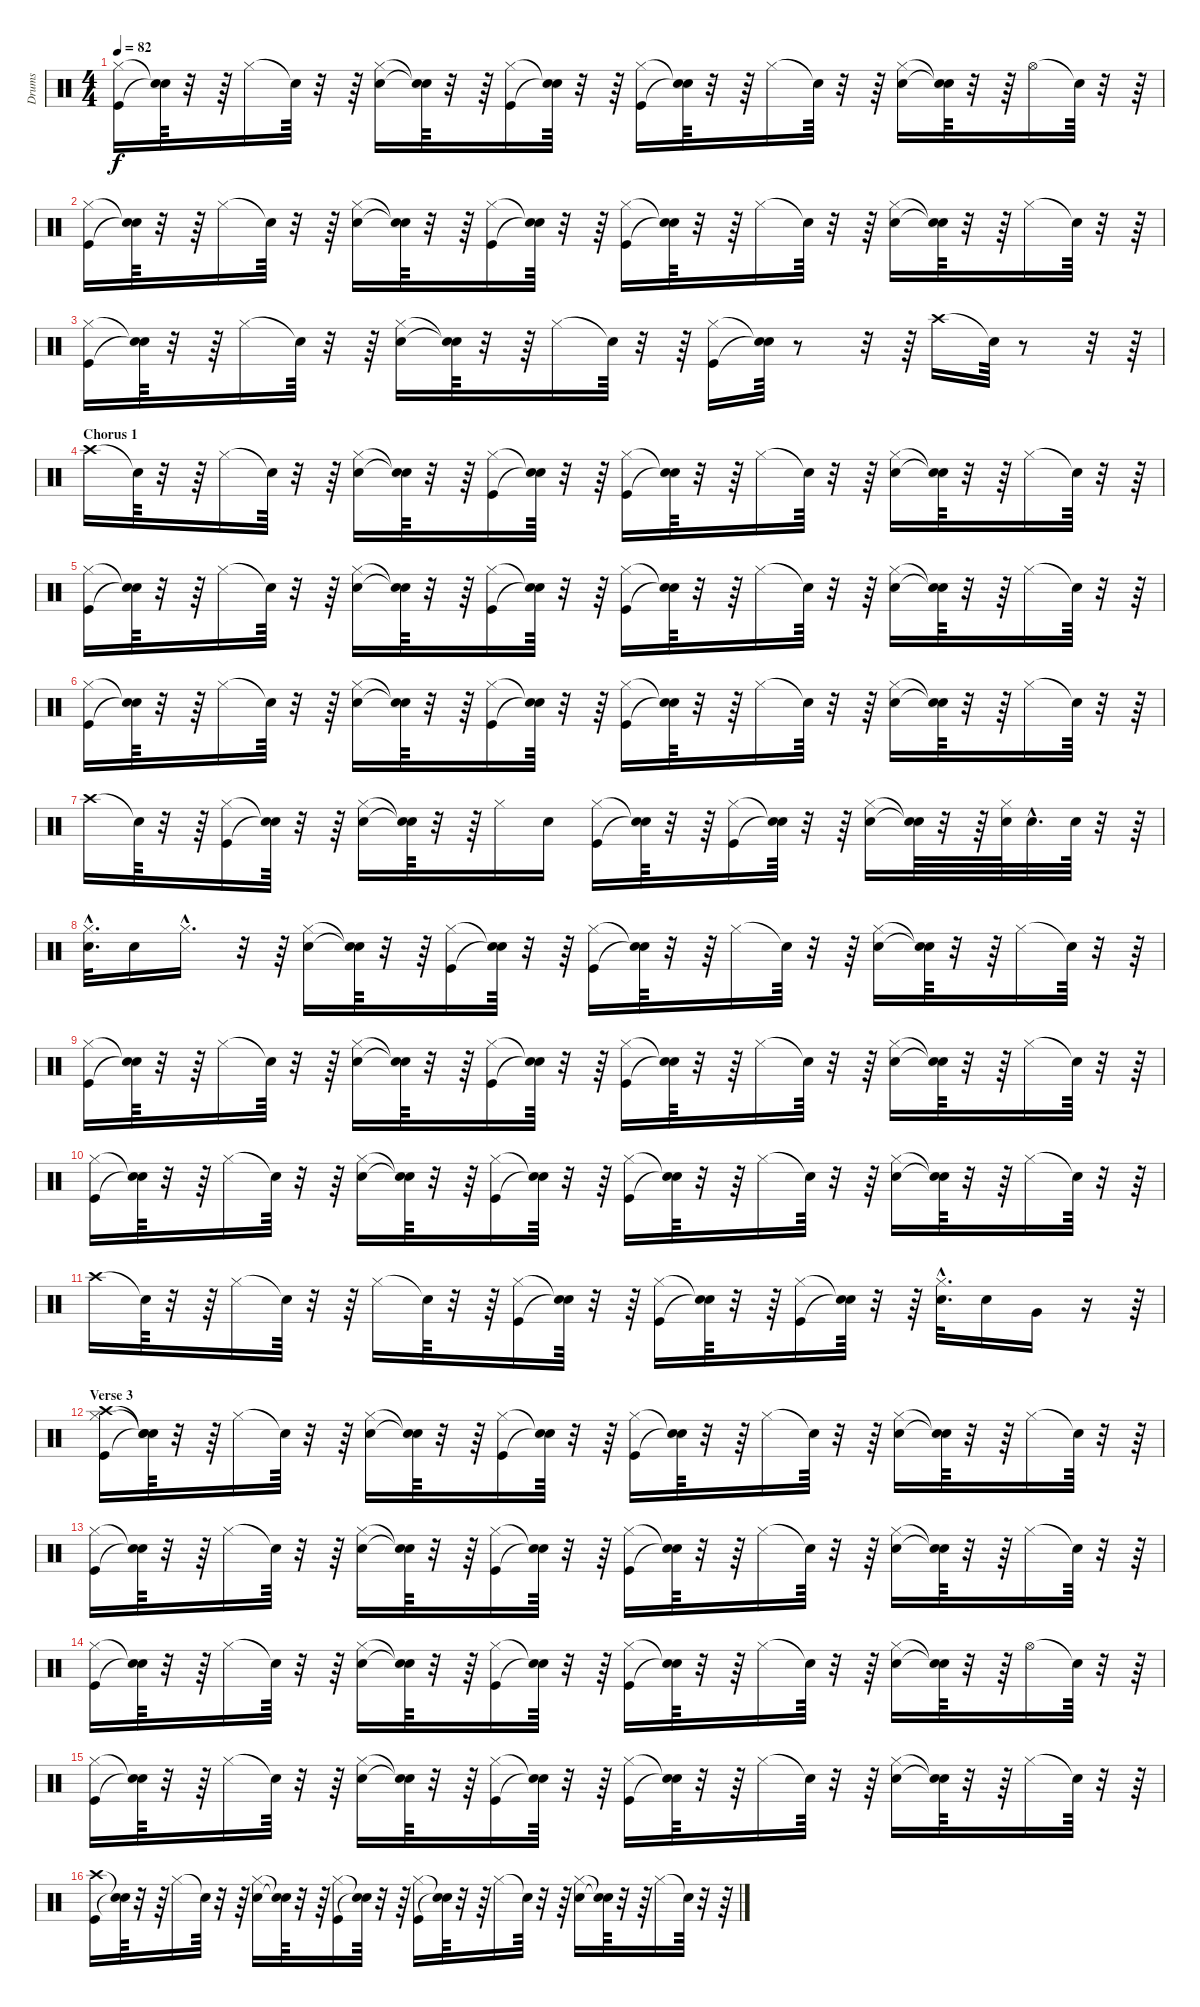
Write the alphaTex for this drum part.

\track ("Drums" "Drums") {instrument percussion}
\staff {score}
\articulation defaults
\ts (4 4)
\tempo 82
\clef neutral
\ks c
("Hi-Hat (closed)" "Kick (hit)").16{dy f} ("Snare (hit)"{t} "Snare (hit)"{t}).64 r.32 r.64 "Hi-Hat (closed)".16 "Snare (hit)"{t}.64 r.32 r.64 ("Hi-Hat (closed)" "Snare (hit) 2").16 ("Snare (hit)"{t} "Snare (hit)"{t}).64 r.32 r.64 ("Hi-Hat (closed)" "Kick (hit)").16 ("Snare (hit)"{t} "Snare (hit)"{t}).64 r.32 r.64 ("Hi-Hat (closed)" "Kick (hit)").16 ("Snare (hit)"{t} "Snare (hit)"{t}).64 r.32 r.64 "Hi-Hat (closed)".16 "Snare (hit)"{t}.64 r.32 r.64 ("Hi-Hat (closed)" "Snare (hit) 2").16 ("Snare (hit)"{t} "Snare (hit)"{t}).64 r.32 r.64 "Hi-Hat (open)".16 "Snare (hit)"{t}.64 r.32 r.64 |
("Kick (hit)" "Hi-Hat (closed)").16 ("Snare (hit)"{t} "Snare (hit)"{t}).64 r.32 r.64 "Hi-Hat (closed)".16 "Snare (hit)"{t}.64 r.32 r.64 ("Snare (hit) 2" "Hi-Hat (closed)").16 ("Snare (hit)"{t} "Snare (hit)"{t}).64 r.32 r.64 ("Kick (hit)" "Hi-Hat (closed)").16 ("Snare (hit)"{t} "Snare (hit)"{t}).64 r.32 r.64 ("Kick (hit)" "Hi-Hat (closed)").16 ("Snare (hit)"{t} "Snare (hit)"{t}).64 r.32 r.64 "Hi-Hat (closed)".16 "Snare (hit)"{t}.64 r.32 r.64 ("Snare (hit) 2" "Hi-Hat (closed)").16 ("Snare (hit)"{t} "Snare (hit)"{t}).64 r.32 r.64 "Hi-Hat (closed)".16 "Snare (hit)"{t}.64 r.32 r.64 |
("Hi-Hat (closed)" "Kick (hit)").16 ("Snare (hit)"{t} "Snare (hit)"{t}).64 r.32 r.64 "Hi-Hat (closed)".16 "Snare (hit)"{t}.64 r.32 r.64 ("Hi-Hat (closed)" "Snare (hit) 2").16 ("Snare (hit)"{t} "Snare (hit)"{t}).64 r.32 r.64 "Hi-Hat (closed)".16 "Snare (hit)"{t}.64 r.32 r.64 ("Hi-Hat (closed)" "Kick (hit)").16 ("Snare (hit)"{t} "Snare (hit)"{t}).64 r.8 r.32 r.64 "Crash high (hit)".16 "Snare (hit)"{t}.64 r.8 r.32 r.64 |
\section ("" "Chorus 1")
"Crash high (hit)".16 "Snare (hit)"{t}.64 r.32 r.64 "Hi-Hat (closed)".16 "Snare (hit)"{t}.64 r.32 r.64 ("Hi-Hat (closed)" "Snare (hit) 2").16 ("Snare (hit)"{t} "Snare (hit)"{t}).64 r.32 r.64 ("Hi-Hat (closed)" "Kick (hit)").16 ("Snare (hit)"{t} "Snare (hit)"{t}).64 r.32 r.64 ("Hi-Hat (closed)" "Kick (hit)").16 ("Snare (hit)"{t} "Snare (hit)"{t}).64 r.32 r.64 "Hi-Hat (closed)".16 "Snare (hit)"{t}.64 r.32 r.64 ("Hi-Hat (closed)" "Snare (hit) 2").16 ("Snare (hit)"{t} "Snare (hit)"{t}).64 r.32 r.64 "Hi-Hat (closed)".16 "Snare (hit)"{t}.64 r.32 r.64 |
("Kick (hit)" "Hi-Hat (closed)").16 ("Snare (hit)"{t} "Snare (hit)"{t}).64 r.32 r.64 "Hi-Hat (closed)".16 "Snare (hit)"{t}.64 r.32 r.64 ("Snare (hit) 2" "Hi-Hat (closed)").16 ("Snare (hit)"{t} "Snare (hit)"{t}).64 r.32 r.64 ("Hi-Hat (closed)" "Kick (hit)").16 ("Snare (hit)"{t} "Snare (hit)"{t}).64 r.32 r.64 ("Kick (hit)" "Hi-Hat (closed)").16 ("Snare (hit)"{t} "Snare (hit)"{t}).64 r.32 r.64 "Hi-Hat (closed)".16 "Snare (hit)"{t}.64 r.32 r.64 ("Hi-Hat (closed)" "Snare (hit) 2").16 ("Snare (hit)"{t} "Snare (hit)"{t}).64 r.32 r.64 "Hi-Hat (closed)".16 "Snare (hit)"{t}.64 r.32 r.64 |
("Kick (hit)" "Hi-Hat (closed)").16 ("Snare (hit)"{t} "Snare (hit)"{t}).64 r.32 r.64 "Hi-Hat (closed)".16 "Snare (hit)"{t}.64 r.32 r.64 ("Snare (hit) 2" "Hi-Hat (closed)").16 ("Snare (hit)"{t} "Snare (hit)"{t}).64 r.32 r.64 ("Hi-Hat (closed)" "Kick (hit)").16 ("Snare (hit)"{t} "Snare (hit)"{t}).64 r.32 r.64 ("Kick (hit)" "Hi-Hat (closed)").16 ("Snare (hit)"{t} "Snare (hit)"{t}).64 r.32 r.64 "Hi-Hat (closed)".16 "Snare (hit)"{t}.64 r.32 r.64 ("Hi-Hat (closed)" "Snare (hit) 2").16 ("Snare (hit)"{t} "Snare (hit)"{t}).64 r.32 r.64 "Hi-Hat (closed)".16 "Snare (hit)"{t}.64 r.32 r.64 |
"Crash high (hit)".16 "Snare (hit)"{t}.64 r.32 r.64 ("Kick (hit)" "Hi-Hat (closed)").16 ("Snare (hit)"{t} "Snare (hit)"{t}).64 r.32 r.64 ("Snare (hit) 2" "Hi-Hat (closed)").16 ("Snare (hit)"{t} "Snare (hit)"{t}).64 r.32 r.64 "Hi-Hat (closed)".16 "Snare (hit) 2".16 ("Hi-Hat (closed)" "Kick (hit)").16 ("Snare (hit)"{t} "Snare (hit)"{t}).64 r.32 r.64 ("Hi-Hat (closed)" "Kick (hit)").16 ("Snare (hit)"{t} "Snare (hit)"{t}).64 r.32 r.64 ("Hi-Hat (closed)" "Snare (hit) 2").16 ("Snare (hit)"{t} "Snare (hit)"{t}).64 r.32 r.64 ("Snare (hit) 2" "Hi-Hat (closed)").64 "Snare (hit) 2"{hac}.32{d} "Snare (hit) 2".64 r.32 r.64 |
("Snare (hit) 2"{hac} "Hi-Hat (closed)"{hac}).32{d} "Snare (hit) 2".16 "Hi-Hat (closed)"{hac}.16{d} r.32 r.64 ("Snare (hit) 2" "Hi-Hat (closed)").16 ("Snare (hit)"{t} "Snare (hit)"{t}).64 r.32 r.64 ("Kick (hit)" "Hi-Hat (closed)").16 ("Snare (hit)"{t} "Snare (hit)"{t}).64 r.32 r.64 ("Kick (hit)" "Hi-Hat (closed)").16 ("Snare (hit)"{t} "Snare (hit)"{t}).64 r.32 r.64 "Hi-Hat (closed)".16 "Snare (hit)"{t}.64 r.32 r.64 ("Snare (hit) 2" "Hi-Hat (closed)").16 ("Snare (hit)"{t} "Snare (hit)"{t}).64 r.32 r.64 "Hi-Hat (closed)".16 "Snare (hit)"{t}.64 r.32 r.64 |
("Kick (hit)" "Hi-Hat (closed)").16 ("Snare (hit)"{t} "Snare (hit)"{t}).64 r.32 r.64 "Hi-Hat (closed)".16 "Snare (hit)"{t}.64 r.32 r.64 ("Snare (hit) 2" "Hi-Hat (closed)").16 ("Snare (hit)"{t} "Snare (hit)"{t}).64 r.32 r.64 ("Kick (hit)" "Hi-Hat (closed)").16 ("Snare (hit)"{t} "Snare (hit)"{t}).64 r.32 r.64 ("Kick (hit)" "Hi-Hat (closed)").16 ("Snare (hit)"{t} "Snare (hit)"{t}).64 r.32 r.64 "Hi-Hat (closed)".16 "Snare (hit)"{t}.64 r.32 r.64 ("Snare (hit) 2" "Hi-Hat (closed)").16 ("Snare (hit)"{t} "Snare (hit)"{t}).64 r.32 r.64 "Hi-Hat (closed)".16 "Snare (hit)"{t}.64 r.32 r.64 |
("Kick (hit)" "Hi-Hat (closed)").16 ("Snare (hit)"{t} "Snare (hit)"{t}).64 r.32 r.64 "Hi-Hat (closed)".16 "Snare (hit)"{t}.64 r.32 r.64 ("Snare (hit) 2" "Hi-Hat (closed)").16 ("Snare (hit)"{t} "Snare (hit)"{t}).64 r.32 r.64 ("Kick (hit)" "Hi-Hat (closed)").16 ("Snare (hit)"{t} "Snare (hit)"{t}).64 r.32 r.64 ("Kick (hit)" "Hi-Hat (closed)").16 ("Snare (hit)"{t} "Snare (hit)"{t}).64 r.32 r.64 "Hi-Hat (closed)".16 "Snare (hit)"{t}.64 r.32 r.64 ("Snare (hit) 2" "Hi-Hat (closed)").16 ("Snare (hit)"{t} "Snare (hit)"{t}).64 r.32 r.64 "Hi-Hat (closed)".16 "Snare (hit)"{t}.64 r.32 r.64 |
"Crash high (hit)".16 "Snare (hit)"{t}.64 r.32 r.64 "Hi-Hat (closed)".16 "Snare (hit)"{t}.64 r.32 r.64 "Hi-Hat (closed)".16 "Snare (hit)"{t}.64 r.32 r.64 ("Kick (hit)" "Hi-Hat (closed)").16 ("Snare (hit)"{t} "Snare (hit)"{t}).64 r.32 r.64 ("Kick (hit)" "Hi-Hat (closed)").16 ("Snare (hit)"{t} "Snare (hit)"{t}).64 r.32 r.64 ("Kick (hit)" "Hi-Hat (closed)").16 ("Snare (hit)"{t} "Snare (hit)"{t}).64 r.32 r.64 ("Snare (hit) 2"{hac} "Hi-Hat (closed)"{hac}).32{d} "Snare (hit) 2".16 "Very Low Tom (hit)".16 r.16 r.64 |
\section ("" "Verse 3")
("Crash high (hit)" "Kick (hit)" "Hi-Hat (closed)").16 ("Snare (hit)"{t} "Snare (hit)"{t} "Snare (hit)"{t}).64 r.32 r.64 "Hi-Hat (closed)".16 "Snare (hit)"{t}.64 r.32 r.64 ("Snare (hit) 2" "Hi-Hat (closed)").16 ("Snare (hit)"{t} "Snare (hit)"{t}).64 r.32 r.64 ("Kick (hit)" "Hi-Hat (closed)").16 ("Snare (hit)"{t} "Snare (hit)"{t}).64 r.32 r.64 ("Kick (hit)" "Hi-Hat (closed)").16 ("Snare (hit)"{t} "Snare (hit)"{t}).64 r.32 r.64 "Hi-Hat (closed)".16 "Snare (hit)"{t}.64 r.32 r.64 ("Snare (hit) 2" "Hi-Hat (closed)").16 ("Snare (hit)"{t} "Snare (hit)"{t}).64 r.32 r.64 "Hi-Hat (closed)".16 "Snare (hit)"{t}.64 r.32 r.64 |
("Kick (hit)" "Hi-Hat (closed)").16 ("Snare (hit)"{t} "Snare (hit)"{t}).64 r.32 r.64 "Hi-Hat (closed)".16 "Snare (hit)"{t}.64 r.32 r.64 ("Snare (hit) 2" "Hi-Hat (closed)").16 ("Snare (hit)"{t} "Snare (hit)"{t}).64 r.32 r.64 ("Kick (hit)" "Hi-Hat (closed)").16 ("Snare (hit)"{t} "Snare (hit)"{t}).64 r.32 r.64 ("Kick (hit)" "Hi-Hat (closed)").16 ("Snare (hit)"{t} "Snare (hit)"{t}).64 r.32 r.64 "Hi-Hat (closed)".16 "Snare (hit)"{t}.64 r.32 r.64 ("Snare (hit) 2" "Hi-Hat (closed)").16 ("Snare (hit)"{t} "Snare (hit)"{t}).64 r.32 r.64 "Hi-Hat (closed)".16 "Snare (hit)"{t}.64 r.32 r.64 |
("Kick (hit)" "Hi-Hat (closed)").16 ("Snare (hit)"{t} "Snare (hit)"{t}).64 r.32 r.64 "Hi-Hat (closed)".16 "Snare (hit)"{t}.64 r.32 r.64 ("Snare (hit) 2" "Hi-Hat (closed)").16 ("Snare (hit)"{t} "Snare (hit)"{t}).64 r.32 r.64 ("Kick (hit)" "Hi-Hat (closed)").16 ("Snare (hit)"{t} "Snare (hit)"{t}).64 r.32 r.64 ("Kick (hit)" "Hi-Hat (closed)").16 ("Snare (hit)"{t} "Snare (hit)"{t}).64 r.32 r.64 "Hi-Hat (closed)".16 "Snare (hit)"{t}.64 r.32 r.64 ("Snare (hit) 2" "Hi-Hat (closed)").16 ("Snare (hit)"{t} "Snare (hit)"{t}).64 r.32 r.64 "Hi-Hat (open)".16 "Snare (hit)"{t}.64 r.32 r.64 |
("Kick (hit)" "Hi-Hat (closed)").16 ("Snare (hit)"{t} "Snare (hit)"{t}).64 r.32 r.64 "Hi-Hat (closed)".16 "Snare (hit)"{t}.64 r.32 r.64 ("Snare (hit) 2" "Hi-Hat (closed)").16 ("Snare (hit)"{t} "Snare (hit)"{t}).64 r.32 r.64 ("Kick (hit)" "Hi-Hat (closed)").16 ("Snare (hit)"{t} "Snare (hit)"{t}).64 r.32 r.64 ("Kick (hit)" "Hi-Hat (closed)").16 ("Snare (hit)"{t} "Snare (hit)"{t}).64 r.32 r.64 "Hi-Hat (closed)".16 "Snare (hit)"{t}.64 r.32 r.64 ("Snare (hit) 2" "Hi-Hat (closed)").16 ("Snare (hit)"{t} "Snare (hit)"{t}).64 r.32 r.64 "Hi-Hat (closed)".16 "Snare (hit)"{t}.64 r.32 r.64 |
("Kick (hit)" "Crash high (hit)").16 ("Snare (hit)"{t} "Snare (hit)"{t}).64 r.32 r.64 "Hi-Hat (closed)".16 "Snare (hit)"{t}.64 r.32 r.64 ("Snare (hit) 2" "Hi-Hat (closed)").16 ("Snare (hit)"{t} "Snare (hit)"{t}).64 r.32 r.64 ("Kick (hit)" "Hi-Hat (closed)").16 ("Snare (hit)"{t} "Snare (hit)"{t}).64 r.32 r.64 ("Kick (hit)" "Hi-Hat (closed)").16 ("Snare (hit)"{t} "Snare (hit)"{t}).64 r.32 r.64 "Hi-Hat (closed)".16 "Snare (hit)"{t}.64 r.32 r.64 ("Snare (hit) 2" "Hi-Hat (closed)").16 ("Snare (hit)"{t} "Snare (hit)"{t}).64 r.32 r.64 "Hi-Hat (closed)".16 "Snare (hit)"{t}.64 r.32 r.64
